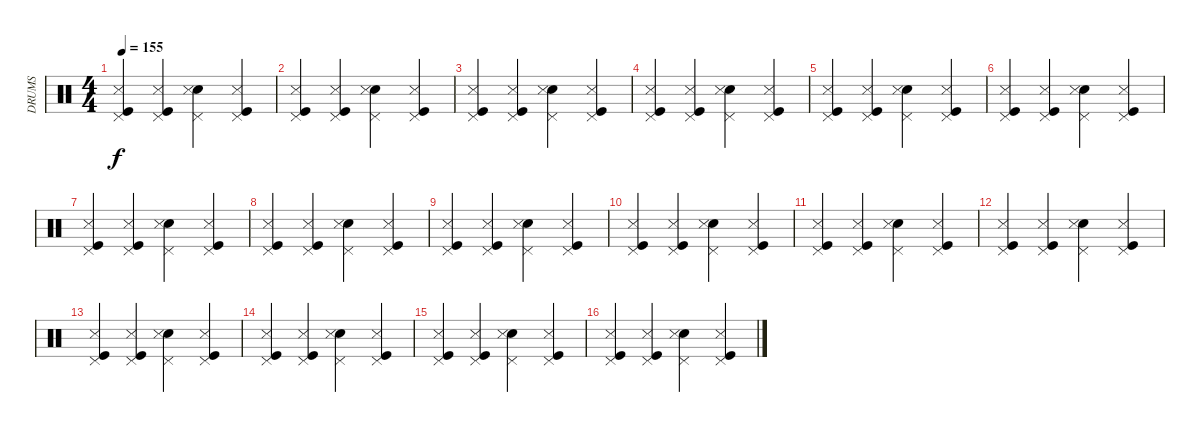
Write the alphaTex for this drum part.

\track ("DRUMS" "DRUMS") {instrument percussion}
\staff {score}
\articulation defaults
\ts (4 4)
\tempo 155
\clef neutral
\ks c
("Kick (hit)" "Snare (side stick) 3" "Pedal Hi-Hat (hit)").4{dy f} ("Kick (hit)" "Snare (side stick) 3" "Pedal Hi-Hat (hit)").4 ("Snare (hit) 2" "Snare (side stick) 3" "Pedal Hi-Hat (hit)").4 ("Kick (hit)" "Snare (side stick) 3" "Pedal Hi-Hat (hit)").4 |
("Kick (hit)" "Snare (side stick) 3" "Pedal Hi-Hat (hit)").4 ("Kick (hit)" "Snare (side stick) 3" "Pedal Hi-Hat (hit)").4 ("Snare (hit) 2" "Snare (side stick) 3" "Pedal Hi-Hat (hit)").4 ("Kick (hit)" "Snare (side stick) 3" "Pedal Hi-Hat (hit)").4 |
("Kick (hit)" "Snare (side stick) 3" "Pedal Hi-Hat (hit)").4 ("Kick (hit)" "Snare (side stick) 3" "Pedal Hi-Hat (hit)").4 ("Snare (hit) 2" "Snare (side stick) 3" "Pedal Hi-Hat (hit)").4 ("Kick (hit)" "Snare (side stick) 3" "Pedal Hi-Hat (hit)").4 |
("Kick (hit)" "Snare (side stick) 3" "Pedal Hi-Hat (hit)").4 ("Kick (hit)" "Snare (side stick) 3" "Pedal Hi-Hat (hit)").4 ("Snare (hit) 2" "Snare (side stick) 3" "Pedal Hi-Hat (hit)").4 ("Kick (hit)" "Snare (side stick) 3" "Pedal Hi-Hat (hit)").4 |
("Kick (hit)" "Snare (side stick) 3" "Pedal Hi-Hat (hit)").4 ("Kick (hit)" "Snare (side stick) 3" "Pedal Hi-Hat (hit)").4 ("Snare (hit) 2" "Snare (side stick) 3" "Pedal Hi-Hat (hit)").4 ("Kick (hit)" "Snare (side stick) 3" "Pedal Hi-Hat (hit)").4 |
("Kick (hit)" "Snare (side stick) 3" "Pedal Hi-Hat (hit)").4 ("Kick (hit)" "Snare (side stick) 3" "Pedal Hi-Hat (hit)").4 ("Snare (hit) 2" "Snare (side stick) 3" "Pedal Hi-Hat (hit)").4 ("Kick (hit)" "Snare (side stick) 3" "Pedal Hi-Hat (hit)").4 |
("Kick (hit)" "Snare (side stick) 3" "Pedal Hi-Hat (hit)").4 ("Kick (hit)" "Snare (side stick) 3" "Pedal Hi-Hat (hit)").4 ("Snare (hit) 2" "Snare (side stick) 3" "Pedal Hi-Hat (hit)").4 ("Kick (hit)" "Snare (side stick) 3" "Pedal Hi-Hat (hit)").4 |
("Kick (hit)" "Snare (side stick) 3" "Pedal Hi-Hat (hit)").4 ("Kick (hit)" "Snare (side stick) 3" "Pedal Hi-Hat (hit)").4 ("Snare (hit) 2" "Snare (side stick) 3" "Pedal Hi-Hat (hit)").4 ("Kick (hit)" "Snare (side stick) 3" "Pedal Hi-Hat (hit)").4 |
("Kick (hit)" "Snare (side stick) 3" "Pedal Hi-Hat (hit)").4 ("Kick (hit)" "Snare (side stick) 3" "Pedal Hi-Hat (hit)").4 ("Snare (hit) 2" "Snare (side stick) 3" "Pedal Hi-Hat (hit)").4 ("Kick (hit)" "Snare (side stick) 3" "Pedal Hi-Hat (hit)").4 |
("Kick (hit)" "Snare (side stick) 3" "Pedal Hi-Hat (hit)").4 ("Kick (hit)" "Snare (side stick) 3" "Pedal Hi-Hat (hit)").4 ("Snare (hit) 2" "Snare (side stick) 3" "Pedal Hi-Hat (hit)").4 ("Kick (hit)" "Snare (side stick) 3" "Pedal Hi-Hat (hit)").4 |
("Kick (hit)" "Snare (side stick) 3" "Pedal Hi-Hat (hit)").4 ("Kick (hit)" "Snare (side stick) 3" "Pedal Hi-Hat (hit)").4 ("Snare (hit) 2" "Snare (side stick) 3" "Pedal Hi-Hat (hit)").4 ("Kick (hit)" "Snare (side stick) 3" "Pedal Hi-Hat (hit)").4 |
("Kick (hit)" "Snare (side stick) 3" "Pedal Hi-Hat (hit)").4 ("Kick (hit)" "Snare (side stick) 3" "Pedal Hi-Hat (hit)").4 ("Snare (hit) 2" "Snare (side stick) 3" "Pedal Hi-Hat (hit)").4 ("Kick (hit)" "Snare (side stick) 3" "Pedal Hi-Hat (hit)").4 |
("Kick (hit)" "Snare (side stick) 3" "Pedal Hi-Hat (hit)").4 ("Kick (hit)" "Snare (side stick) 3" "Pedal Hi-Hat (hit)").4 ("Snare (hit) 2" "Snare (side stick) 3" "Pedal Hi-Hat (hit)").4 ("Kick (hit)" "Snare (side stick) 3" "Pedal Hi-Hat (hit)").4 |
("Kick (hit)" "Snare (side stick) 3" "Pedal Hi-Hat (hit)").4 ("Kick (hit)" "Snare (side stick) 3" "Pedal Hi-Hat (hit)").4 ("Snare (hit) 2" "Snare (side stick) 3" "Pedal Hi-Hat (hit)").4 ("Kick (hit)" "Snare (side stick) 3" "Pedal Hi-Hat (hit)").4 |
("Kick (hit)" "Snare (side stick) 3" "Pedal Hi-Hat (hit)").4 ("Kick (hit)" "Snare (side stick) 3" "Pedal Hi-Hat (hit)").4 ("Snare (hit) 2" "Snare (side stick) 3" "Pedal Hi-Hat (hit)").4 ("Kick (hit)" "Snare (side stick) 3" "Pedal Hi-Hat (hit)").4 |
("Kick (hit)" "Snare (side stick) 3" "Pedal Hi-Hat (hit)").4 ("Kick (hit)" "Snare (side stick) 3" "Pedal Hi-Hat (hit)").4 ("Snare (hit) 2" "Snare (side stick) 3" "Pedal Hi-Hat (hit)").4 ("Kick (hit)" "Snare (side stick) 3" "Pedal Hi-Hat (hit)").4
